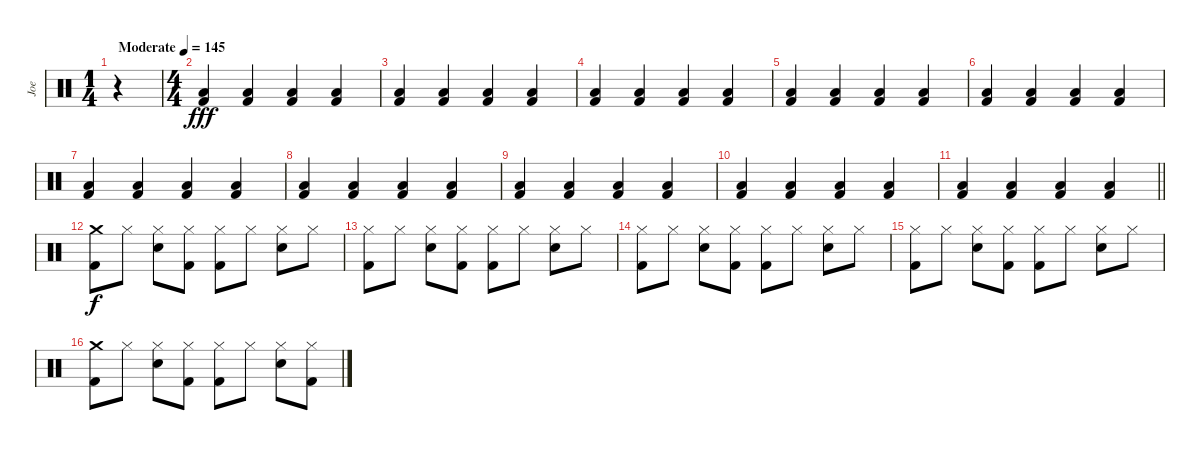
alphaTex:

\track ("Joe" "Joe") {instrument percussion}
\staff {score}
\articulation defaults
\ts (1 4)
\tempo (145 "Moderate")
\clef neutral
\ks c
r.4{dy fff} |
\ts (4 4)
("Low Tom (hit)" "Kick (hit) 2").4{volume 13} ("Low Tom (hit)" "Kick (hit) 2").4 ("Low Tom (hit)" "Kick (hit) 2").4 ("Low Tom (hit)" "Kick (hit) 2").4 |
("Low Tom (hit)" "Kick (hit) 2").4 ("Low Tom (hit)" "Kick (hit) 2").4 ("Low Tom (hit)" "Kick (hit) 2").4 ("Low Tom (hit)" "Kick (hit) 2").4 |
("Low Tom (hit)" "Kick (hit) 2").4{volume 16} ("Low Tom (hit)" "Kick (hit) 2").4 ("Low Tom (hit)" "Kick (hit) 2").4 ("Low Tom (hit)" "Kick (hit) 2").4 |
("Low Tom (hit)" "Kick (hit) 2").4 ("Low Tom (hit)" "Kick (hit) 2").4 ("Low Tom (hit)" "Kick (hit) 2").4 ("Low Tom (hit)" "Kick (hit) 2").4 |
("Low Tom (hit)" "Kick (hit) 2").4 ("Low Tom (hit)" "Kick (hit) 2").4 ("Low Tom (hit)" "Kick (hit) 2").4 ("Low Tom (hit)" "Kick (hit) 2").4 |
("Low Tom (hit)" "Kick (hit) 2").4 ("Low Tom (hit)" "Kick (hit) 2").4 ("Low Tom (hit)" "Kick (hit) 2").4 ("Low Tom (hit)" "Kick (hit) 2").4 |
("Low Tom (hit)" "Kick (hit) 2").4 ("Low Tom (hit)" "Kick (hit) 2").4 ("Low Tom (hit)" "Kick (hit) 2").4 ("Low Tom (hit)" "Kick (hit) 2").4 |
("Low Tom (hit)" "Kick (hit) 2").4 ("Low Tom (hit)" "Kick (hit) 2").4 ("Low Tom (hit)" "Kick (hit) 2").4 ("Low Tom (hit)" "Kick (hit) 2").4 |
("Low Tom (hit)" "Kick (hit) 2").4 ("Low Tom (hit)" "Kick (hit) 2").4 ("Low Tom (hit)" "Kick (hit) 2").4 ("Low Tom (hit)" "Kick (hit) 2").4 |
\barLineRight lightlight
("Low Tom (hit)" "Kick (hit) 2").4 ("Low Tom (hit)" "Kick (hit) 2").4 ("Low Tom (hit)" "Kick (hit) 2").4 ("Low Tom (hit)" "Kick (hit) 2").4 |
\section ("" "")
("Crash medium (hit)" "Kick (hit) 2").8{dy f} "Hi-Hat (closed)".8 ("Hi-Hat (closed)" "Snare (hit) 2").8 ("Hi-Hat (closed)" "Kick (hit) 2").8 ("Hi-Hat (closed)" "Kick (hit) 2").8 "Hi-Hat (closed)".8 ("Hi-Hat (closed)" "Snare (hit) 2").8 "Hi-Hat (closed)".8 |
("Hi-Hat (closed)" "Kick (hit) 2").8 "Hi-Hat (closed)".8 ("Hi-Hat (closed)" "Snare (hit) 2").8 ("Hi-Hat (closed)" "Kick (hit) 2").8 ("Hi-Hat (closed)" "Kick (hit) 2").8 "Hi-Hat (closed)".8 ("Hi-Hat (closed)" "Snare (hit) 2").8 "Hi-Hat (closed)".8 |
("Hi-Hat (closed)" "Kick (hit) 2").8 "Hi-Hat (closed)".8 ("Hi-Hat (closed)" "Snare (hit) 2").8 ("Hi-Hat (closed)" "Kick (hit) 2").8 ("Hi-Hat (closed)" "Kick (hit) 2").8 "Hi-Hat (closed)".8 ("Hi-Hat (closed)" "Snare (hit) 2").8 "Hi-Hat (closed)".8 |
("Hi-Hat (closed)" "Kick (hit) 2").8 "Hi-Hat (closed)".8 ("Hi-Hat (closed)" "Snare (hit) 2").8 ("Hi-Hat (closed)" "Kick (hit) 2").8 ("Hi-Hat (closed)" "Kick (hit) 2").8 "Hi-Hat (closed)".8 ("Hi-Hat (closed)" "Snare (hit) 2").8 "Hi-Hat (closed)".8 |
("Crash medium (hit)" "Kick (hit) 2").8 "Hi-Hat (closed)".8 ("Hi-Hat (closed)" "Snare (hit) 2").8 ("Hi-Hat (closed)" "Kick (hit) 2").8 ("Hi-Hat (closed)" "Kick (hit) 2").8 "Hi-Hat (closed)".8 ("Hi-Hat (closed)" "Snare (hit) 2").8 ("Hi-Hat (closed)" "Kick (hit) 2").8
